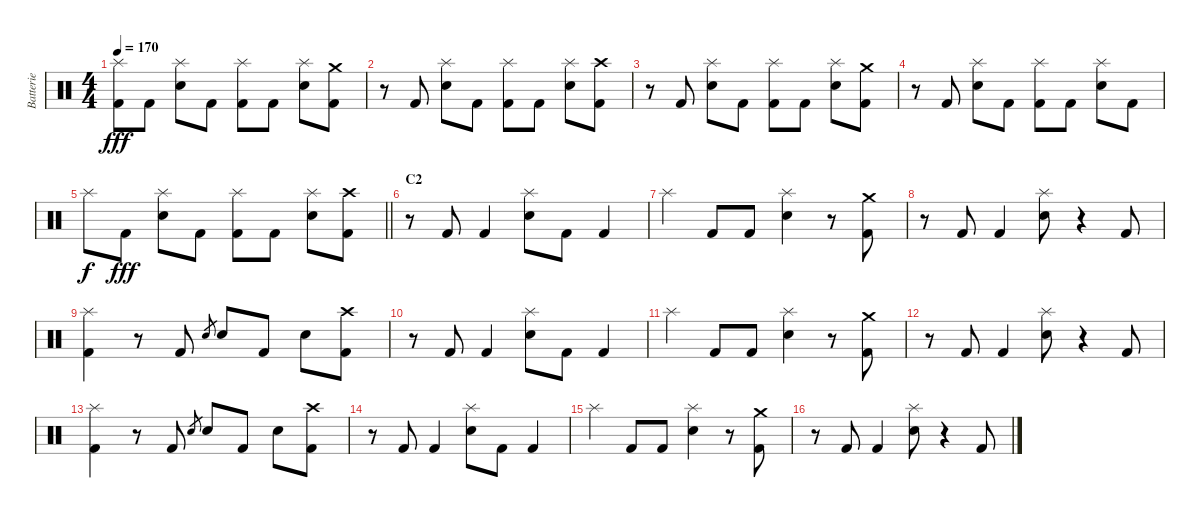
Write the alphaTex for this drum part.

\track ("Batterie" "Batterie") {instrument percussion}
\staff {score}
\articulation defaults
\ts (4 4)
\tempo 170
\clef neutral
\ks c
("Splash (hit)" "Kick (hit) 2").8{dy fff} "Kick (hit) 2".8 ("Splash (hit)" "Electric Snare (hit)").8 "Kick (hit) 2".8 ("Splash (hit)" "Kick (hit) 2").8 "Kick (hit) 2".8 ("Splash (hit)" "Electric Snare (hit)").8 ("Crash medium (hit)" "Kick (hit) 2").8 |
r.8 "Kick (hit) 2".8 ("Splash (hit)" "Electric Snare (hit)").8 "Kick (hit) 2".8 ("Splash (hit)" "Kick (hit) 2").8 "Kick (hit) 2".8 ("Splash (hit)" "Electric Snare (hit)").8 ("Crash high (hit)" "Kick (hit) 2").8 |
r.8 "Kick (hit) 2".8 ("Splash (hit)" "Electric Snare (hit)").8 "Kick (hit) 2".8 ("Splash (hit)" "Kick (hit) 2").8 "Kick (hit) 2".8 ("Splash (hit)" "Electric Snare (hit)").8 ("Crash medium (hit)" "Kick (hit) 2").8 |
r.8 "Kick (hit) 2".8 ("Splash (hit)" "Electric Snare (hit)").8 "Kick (hit) 2".8 ("Splash (hit)" "Kick (hit) 2").8 "Kick (hit) 2".8 ("Splash (hit)" "Electric Snare (hit)").8 "Kick (hit) 2".8 |
\barLineRight lightlight "Splash (hit)".8{dy f} "Kick (hit) 2".8{dy fff}
("Splash (hit)" "Electric Snare (hit)").8 "Kick (hit) 2".8 ("Splash (hit)" "Kick (hit) 2").8 "Kick (hit) 2".8 ("Splash (hit)" "Electric Snare (hit)").8 ("Crash high (hit)" "Kick (hit) 2").8 |
\section ("" "C2")
r.8 "Kick (hit) 2".8 "Kick (hit) 2".4 ("Splash (hit)" "Electric Snare (hit)").8 "Kick (hit) 2".8 "Kick (hit) 2".4 |
"Splash (hit)".4 "Kick (hit) 2".8 "Kick (hit) 2".8 ("Splash (hit)" "Electric Snare (hit)").4 r.8 ("Crash medium (hit)" "Kick (hit) 2").8 |
r.8 "Kick (hit) 2".8 "Kick (hit) 2".4 ("Splash (hit)" "Electric Snare (hit)").8 r.4 "Kick (hit) 2".8 |
("Splash (hit)" "Kick (hit) 2").4 r.8 "Kick (hit) 2".8 "Electric Snare (hit)".8{gr} "Electric Snare (hit)".8 "Kick (hit) 2".8 "Electric Snare (hit)".8 ("Crash high (hit)" "Kick (hit) 2").8 |
r.8 "Kick (hit) 2".8 "Kick (hit) 2".4 ("Splash (hit)" "Electric Snare (hit)").8 "Kick (hit) 2".8 "Kick (hit) 2".4 |
"Splash (hit)".4 "Kick (hit) 2".8 "Kick (hit) 2".8 ("Splash (hit)" "Electric Snare (hit)").4 r.8 ("Crash medium (hit)" "Kick (hit) 2").8 |
r.8 "Kick (hit) 2".8 "Kick (hit) 2".4 ("Splash (hit)" "Electric Snare (hit)").8 r.4 "Kick (hit) 2".8 |
("Splash (hit)" "Kick (hit) 2").4 r.8 "Kick (hit) 2".8 "Electric Snare (hit)".8{gr} "Electric Snare (hit)".8 "Kick (hit) 2".8 "Electric Snare (hit)".8 ("Crash high (hit)" "Kick (hit) 2").8 |
r.8 "Kick (hit) 2".8 "Kick (hit) 2".4 ("Splash (hit)" "Electric Snare (hit)").8 "Kick (hit) 2".8 "Kick (hit) 2".4 |
"Splash (hit)".4 "Kick (hit) 2".8 "Kick (hit) 2".8 ("Splash (hit)" "Electric Snare (hit)").4 r.8 ("Crash medium (hit)" "Kick (hit) 2").8 |
r.8 "Kick (hit) 2".8 "Kick (hit) 2".4 ("Splash (hit)" "Electric Snare (hit)").8 r.4 "Kick (hit) 2".8
